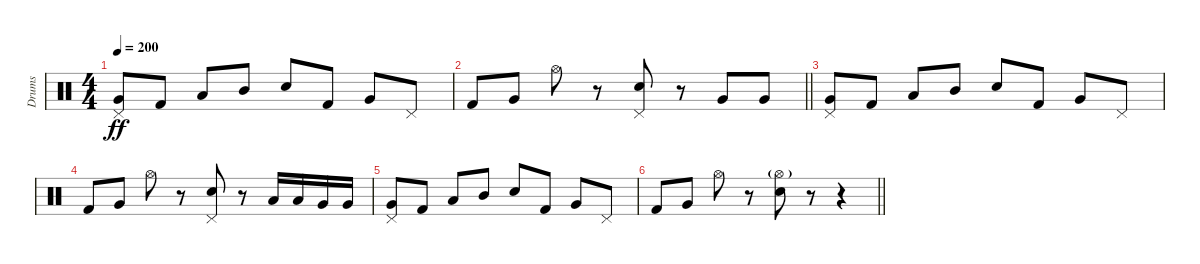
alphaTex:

\track ("Drums" "Drums") {instrument percussion}
\staff {score}
\articulation defaults
\ts (4 4)
\tempo 200
\clef neutral
\ks c
("Pedal Hi-Hat (hit)" "Very Low Tom (hit)").8{dy ff} "Kick (hit) 2".8 "Low Tom (hit)".8 "Mid Tom (hit)".8 "Electric Snare (hit)".8 "Kick (hit) 2".8 "Very Low Tom (hit)".8 "Pedal Hi-Hat (hit)".8 |
\barLineRight lightlight "Kick (hit) 2".8 "Very Low Tom (hit)".8 "Hi-Hat (open)".8
r.8 ("Pedal Hi-Hat (hit)" "Electric Snare (hit)").8 r.8 "Very Low Tom (hit)".8 "Very Low Tom (hit)".8 |
("Pedal Hi-Hat (hit)" "Very Low Tom (hit)").8 "Kick (hit) 2".8 "Low Tom (hit)".8 "Mid Tom (hit)".8 "Electric Snare (hit)".8 "Kick (hit) 2".8 "Very Low Tom (hit)".8 "Pedal Hi-Hat (hit)".8 |
"Kick (hit) 2".8 "Very Low Tom (hit)".8 "Hi-Hat (open)".8 r.8 ("Pedal Hi-Hat (hit)" "Electric Snare (hit)").8 r.8 "Low Tom (hit)".16 "Low Tom (hit)".16 "Very Low Tom (hit)".16 "Very Low Tom (hit)".16 |
("Pedal Hi-Hat (hit)" "Very Low Tom (hit)").8 "Kick (hit) 2".8 "Low Tom (hit)".8 "Mid Tom (hit)".8 "Electric Snare (hit)".8 "Kick (hit) 2".8 "Very Low Tom (hit)".8 "Pedal Hi-Hat (hit)".8 |
\barLineRight lightlight "Kick (hit) 2".8 "Very Low Tom (hit)".8 "Hi-Hat (open)".8
r.8 ("Hi-Hat (open)"{g} "Electric Snare (hit)").8 r.8 r.4
